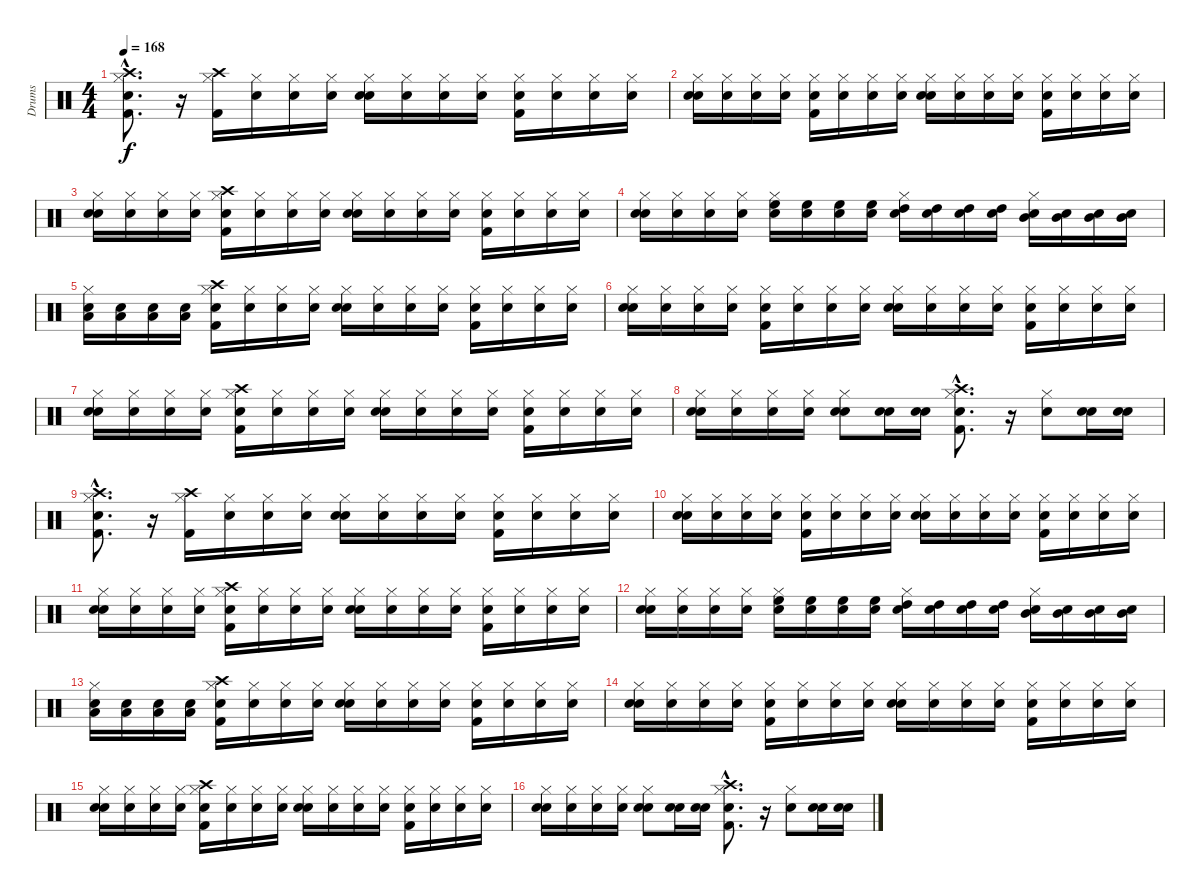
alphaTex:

\track ("Drums" "Drums") {instrument percussion}
\staff {score}
\articulation defaults
\ts (4 4)
\tempo 168
\clef neutral
\ks c
("Snare (hit)"{hac} "Kick (hit) 2"{hac} "Hi-Hat (closed)"{hac} "Crash high (hit)"{hac}).8{d dy f} r.16 ("Kick (hit) 2" "Hi-Hat (closed)" "Crash high (hit)").16 ("Snare (hit)" "Hi-Hat (closed)").16 ("Snare (hit)" "Hi-Hat (closed)").16 ("Snare (hit)" "Hi-Hat (closed)").16 ("Snare (hit)" "Snare (hit) 2" "Hi-Hat (closed)").16 ("Snare (hit)" "Hi-Hat (closed)").16 ("Snare (hit)" "Hi-Hat (closed)").16 ("Snare (hit)" "Hi-Hat (closed)").16 ("Snare (hit)" "Kick (hit) 2" "Hi-Hat (closed)").16 ("Snare (hit)" "Hi-Hat (closed)").16 ("Snare (hit)" "Hi-Hat (closed)").16 ("Snare (hit)" "Hi-Hat (closed)").16 |
("Snare (hit)" "Snare (hit) 2" "Hi-Hat (closed)").16 ("Snare (hit)" "Hi-Hat (closed)").16 ("Snare (hit)" "Hi-Hat (closed)").16 ("Snare (hit)" "Hi-Hat (closed)").16 ("Snare (hit)" "Kick (hit) 2" "Hi-Hat (closed)").16 ("Snare (hit)" "Hi-Hat (closed)").16 ("Snare (hit)" "Hi-Hat (closed)").16 ("Snare (hit)" "Hi-Hat (closed)").16 ("Snare (hit)" "Snare (hit) 2" "Hi-Hat (closed)").16 ("Snare (hit)" "Hi-Hat (closed)").16 ("Snare (hit)" "Hi-Hat (closed)").16 ("Snare (hit)" "Hi-Hat (closed)").16 ("Snare (hit)" "Kick (hit) 2" "Hi-Hat (closed)").16 ("Snare (hit)" "Hi-Hat (closed)").16 ("Snare (hit)" "Hi-Hat (closed)").16 ("Snare (hit)" "Hi-Hat (closed)").16 |
("Snare (hit)" "Snare (hit) 2" "Hi-Hat (closed)").16 ("Snare (hit)" "Hi-Hat (closed)").16 ("Snare (hit)" "Hi-Hat (closed)").16 ("Snare (hit)" "Hi-Hat (closed)").16 ("Snare (hit)" "Kick (hit) 2" "Hi-Hat (closed)" "Crash high (hit)").16 ("Snare (hit)" "Hi-Hat (closed)").16 ("Snare (hit)" "Hi-Hat (closed)").16 ("Snare (hit)" "Hi-Hat (closed)").16 ("Snare (hit)" "Snare (hit) 2" "Hi-Hat (closed)").16 ("Snare (hit)" "Hi-Hat (closed)").16 ("Snare (hit)" "Hi-Hat (closed)").16 ("Snare (hit)" "Hi-Hat (closed)").16 ("Snare (hit)" "Kick (hit) 2" "Hi-Hat (closed)").16 ("Snare (hit)" "Hi-Hat (closed)").16 ("Snare (hit)" "Hi-Hat (closed)").16 ("Snare (hit)" "Hi-Hat (closed)").16 |
("Snare (hit)" "Snare (hit) 2" "Hi-Hat (closed)").16 ("Snare (hit)" "Hi-Hat (closed)").16 ("Snare (hit)" "Hi-Hat (closed)").16 ("Snare (hit)" "Hi-Hat (closed)").16 ("Snare (hit)" "Hi-Hat (closed)" "High Floor Tom (hit)").16 ("Snare (hit)" "High Floor Tom (hit)").16 ("Snare (hit)" "High Floor Tom (hit)").16 ("Snare (hit)" "High Floor Tom (hit)").16 ("Snare (hit)" "Hi-Hat (closed)" "High Tom (hit)").16 ("Snare (hit)" "High Tom (hit)").16 ("Snare (hit)" "High Tom (hit)").16 ("Snare (hit)" "High Tom (hit)").16 ("Snare (hit)" "Hi-Hat (closed)" "Mid Tom (hit)").16 ("Snare (hit)" "Mid Tom (hit)").16 ("Snare (hit)" "Mid Tom (hit)").16 ("Snare (hit)" "Mid Tom (hit)").16 |
("Snare (hit)" "Hi-Hat (closed)" "Low Tom (hit)").16 ("Snare (hit)" "Low Tom (hit)").16 ("Snare (hit)" "Low Tom (hit)").16 ("Snare (hit)" "Low Tom (hit)").16 ("Snare (hit)" "Kick (hit) 2" "Hi-Hat (closed)" "Crash high (hit)").16 ("Snare (hit)" "Hi-Hat (closed)").16 ("Snare (hit)" "Hi-Hat (closed)").16 ("Snare (hit)" "Hi-Hat (closed)").16 ("Snare (hit)" "Snare (hit) 2" "Hi-Hat (closed)").16 ("Snare (hit)" "Hi-Hat (closed)").16 ("Snare (hit)" "Hi-Hat (closed)").16 ("Snare (hit)" "Hi-Hat (closed)").16 ("Snare (hit)" "Kick (hit) 2" "Hi-Hat (closed)").16 ("Snare (hit)" "Hi-Hat (closed)").16 ("Snare (hit)" "Hi-Hat (closed)").16 ("Snare (hit)" "Hi-Hat (closed)").16 |
("Snare (hit)" "Snare (hit) 2" "Hi-Hat (closed)").16 ("Snare (hit)" "Hi-Hat (closed)").16 ("Snare (hit)" "Hi-Hat (closed)").16 ("Snare (hit)" "Hi-Hat (closed)").16 ("Snare (hit)" "Kick (hit) 2" "Hi-Hat (closed)").16 ("Snare (hit)" "Hi-Hat (closed)").16 ("Snare (hit)" "Hi-Hat (closed)").16 ("Snare (hit)" "Hi-Hat (closed)").16 ("Snare (hit)" "Snare (hit) 2" "Hi-Hat (closed)").16 ("Snare (hit)" "Hi-Hat (closed)").16 ("Snare (hit)" "Hi-Hat (closed)").16 ("Snare (hit)" "Hi-Hat (closed)").16 ("Snare (hit)" "Kick (hit) 2" "Hi-Hat (closed)").16 ("Snare (hit)" "Hi-Hat (closed)").16 ("Snare (hit)" "Hi-Hat (closed)").16 ("Snare (hit)" "Hi-Hat (closed)").16 |
("Snare (hit)" "Snare (hit) 2" "Hi-Hat (closed)").16 ("Snare (hit)" "Hi-Hat (closed)").16 ("Snare (hit)" "Hi-Hat (closed)").16 ("Snare (hit)" "Hi-Hat (closed)").16 ("Snare (hit)" "Kick (hit) 2" "Hi-Hat (closed)" "Crash high (hit)").16 ("Snare (hit)" "Hi-Hat (closed)").16 ("Snare (hit)" "Hi-Hat (closed)").16 ("Snare (hit)" "Hi-Hat (closed)").16 ("Snare (hit)" "Snare (hit) 2" "Hi-Hat (closed)").16 ("Snare (hit)" "Hi-Hat (closed)").16 ("Snare (hit)" "Hi-Hat (closed)").16 ("Snare (hit)" "Hi-Hat (closed)").16 ("Snare (hit)" "Kick (hit) 2" "Hi-Hat (closed)").16 ("Snare (hit)" "Hi-Hat (closed)").16 ("Snare (hit)" "Hi-Hat (closed)").16 ("Snare (hit)" "Hi-Hat (closed)").16 |
("Snare (hit)" "Snare (hit) 2" "Hi-Hat (closed)").16 ("Snare (hit)" "Hi-Hat (closed)").16 ("Snare (hit)" "Hi-Hat (closed)").16 ("Snare (hit)" "Hi-Hat (closed)").16 ("Snare (hit)" "Snare (hit) 2" "Hi-Hat (closed)").8 ("Snare (hit)" "Snare (hit) 2").16 ("Snare (hit)" "Snare (hit) 2").16 ("Snare (hit)"{hac} "Kick (hit) 2"{hac} "Hi-Hat (closed)"{hac} "Crash high (hit)"{hac}).8{d} r.16 ("Snare (hit) 2" "Hi-Hat (closed)").8 ("Snare (hit)" "Snare (hit) 2").16 ("Snare (hit)" "Snare (hit) 2").16 |
("Snare (hit)"{hac} "Kick (hit) 2"{hac} "Hi-Hat (closed)"{hac} "Crash high (hit)"{hac}).8{d} r.16 ("Kick (hit) 2" "Hi-Hat (closed)" "Crash high (hit)").16 ("Snare (hit)" "Hi-Hat (closed)").16 ("Snare (hit)" "Hi-Hat (closed)").16 ("Snare (hit)" "Hi-Hat (closed)").16 ("Snare (hit)" "Snare (hit) 2" "Hi-Hat (closed)").16 ("Snare (hit)" "Hi-Hat (closed)").16 ("Snare (hit)" "Hi-Hat (closed)").16 ("Snare (hit)" "Hi-Hat (closed)").16 ("Snare (hit)" "Kick (hit) 2" "Hi-Hat (closed)").16 ("Snare (hit)" "Hi-Hat (closed)").16 ("Snare (hit)" "Hi-Hat (closed)").16 ("Snare (hit)" "Hi-Hat (closed)").16 |
("Snare (hit)" "Snare (hit) 2" "Hi-Hat (closed)").16 ("Snare (hit)" "Hi-Hat (closed)").16 ("Snare (hit)" "Hi-Hat (closed)").16 ("Snare (hit)" "Hi-Hat (closed)").16 ("Snare (hit)" "Kick (hit) 2" "Hi-Hat (closed)").16 ("Snare (hit)" "Hi-Hat (closed)").16 ("Snare (hit)" "Hi-Hat (closed)").16 ("Snare (hit)" "Hi-Hat (closed)").16 ("Snare (hit)" "Snare (hit) 2" "Hi-Hat (closed)").16 ("Snare (hit)" "Hi-Hat (closed)").16 ("Snare (hit)" "Hi-Hat (closed)").16 ("Snare (hit)" "Hi-Hat (closed)").16 ("Snare (hit)" "Kick (hit) 2" "Hi-Hat (closed)").16 ("Snare (hit)" "Hi-Hat (closed)").16 ("Snare (hit)" "Hi-Hat (closed)").16 ("Snare (hit)" "Hi-Hat (closed)").16 |
("Snare (hit)" "Snare (hit) 2" "Hi-Hat (closed)").16 ("Snare (hit)" "Hi-Hat (closed)").16 ("Snare (hit)" "Hi-Hat (closed)").16 ("Snare (hit)" "Hi-Hat (closed)").16 ("Snare (hit)" "Kick (hit) 2" "Hi-Hat (closed)" "Crash high (hit)").16 ("Snare (hit)" "Hi-Hat (closed)").16 ("Snare (hit)" "Hi-Hat (closed)").16 ("Snare (hit)" "Hi-Hat (closed)").16 ("Snare (hit)" "Snare (hit) 2" "Hi-Hat (closed)").16 ("Snare (hit)" "Hi-Hat (closed)").16 ("Snare (hit)" "Hi-Hat (closed)").16 ("Snare (hit)" "Hi-Hat (closed)").16 ("Snare (hit)" "Kick (hit) 2" "Hi-Hat (closed)").16 ("Snare (hit)" "Hi-Hat (closed)").16 ("Snare (hit)" "Hi-Hat (closed)").16 ("Snare (hit)" "Hi-Hat (closed)").16 |
("Snare (hit)" "Snare (hit) 2" "Hi-Hat (closed)").16 ("Snare (hit)" "Hi-Hat (closed)").16 ("Snare (hit)" "Hi-Hat (closed)").16 ("Snare (hit)" "Hi-Hat (closed)").16 ("Snare (hit)" "Hi-Hat (closed)" "High Floor Tom (hit)").16 ("Snare (hit)" "High Floor Tom (hit)").16 ("Snare (hit)" "High Floor Tom (hit)").16 ("Snare (hit)" "High Floor Tom (hit)").16 ("Snare (hit)" "Hi-Hat (closed)" "High Tom (hit)").16 ("Snare (hit)" "High Tom (hit)").16 ("Snare (hit)" "High Tom (hit)").16 ("Snare (hit)" "High Tom (hit)").16 ("Snare (hit)" "Hi-Hat (closed)" "Mid Tom (hit)").16 ("Snare (hit)" "Mid Tom (hit)").16 ("Snare (hit)" "Mid Tom (hit)").16 ("Snare (hit)" "Mid Tom (hit)").16 |
("Snare (hit)" "Hi-Hat (closed)" "Low Tom (hit)").16 ("Snare (hit)" "Low Tom (hit)").16 ("Snare (hit)" "Low Tom (hit)").16 ("Snare (hit)" "Low Tom (hit)").16 ("Snare (hit)" "Kick (hit) 2" "Hi-Hat (closed)" "Crash high (hit)").16 ("Snare (hit)" "Hi-Hat (closed)").16 ("Snare (hit)" "Hi-Hat (closed)").16 ("Snare (hit)" "Hi-Hat (closed)").16 ("Snare (hit)" "Snare (hit) 2" "Hi-Hat (closed)").16 ("Snare (hit)" "Hi-Hat (closed)").16 ("Snare (hit)" "Hi-Hat (closed)").16 ("Snare (hit)" "Hi-Hat (closed)").16 ("Snare (hit)" "Kick (hit) 2" "Hi-Hat (closed)").16 ("Snare (hit)" "Hi-Hat (closed)").16 ("Snare (hit)" "Hi-Hat (closed)").16 ("Snare (hit)" "Hi-Hat (closed)").16 |
("Snare (hit)" "Snare (hit) 2" "Hi-Hat (closed)").16 ("Snare (hit)" "Hi-Hat (closed)").16 ("Snare (hit)" "Hi-Hat (closed)").16 ("Snare (hit)" "Hi-Hat (closed)").16 ("Snare (hit)" "Kick (hit) 2" "Hi-Hat (closed)").16 ("Snare (hit)" "Hi-Hat (closed)").16 ("Snare (hit)" "Hi-Hat (closed)").16 ("Snare (hit)" "Hi-Hat (closed)").16 ("Snare (hit)" "Snare (hit) 2" "Hi-Hat (closed)").16 ("Snare (hit)" "Hi-Hat (closed)").16 ("Snare (hit)" "Hi-Hat (closed)").16 ("Snare (hit)" "Hi-Hat (closed)").16 ("Snare (hit)" "Kick (hit) 2" "Hi-Hat (closed)").16 ("Snare (hit)" "Hi-Hat (closed)").16 ("Snare (hit)" "Hi-Hat (closed)").16 ("Snare (hit)" "Hi-Hat (closed)").16 |
("Snare (hit)" "Snare (hit) 2" "Hi-Hat (closed)").16 ("Snare (hit)" "Hi-Hat (closed)").16 ("Snare (hit)" "Hi-Hat (closed)").16 ("Snare (hit)" "Hi-Hat (closed)").16 ("Snare (hit)" "Kick (hit) 2" "Hi-Hat (closed)" "Crash high (hit)").16 ("Snare (hit)" "Hi-Hat (closed)").16 ("Snare (hit)" "Hi-Hat (closed)").16 ("Snare (hit)" "Hi-Hat (closed)").16 ("Snare (hit)" "Snare (hit) 2" "Hi-Hat (closed)").16 ("Snare (hit)" "Hi-Hat (closed)").16 ("Snare (hit)" "Hi-Hat (closed)").16 ("Snare (hit)" "Hi-Hat (closed)").16 ("Snare (hit)" "Kick (hit) 2" "Hi-Hat (closed)").16 ("Snare (hit)" "Hi-Hat (closed)").16 ("Snare (hit)" "Hi-Hat (closed)").16 ("Snare (hit)" "Hi-Hat (closed)").16 |
("Snare (hit)" "Snare (hit) 2" "Hi-Hat (closed)").16 ("Snare (hit)" "Hi-Hat (closed)").16 ("Snare (hit)" "Hi-Hat (closed)").16 ("Snare (hit)" "Hi-Hat (closed)").16 ("Snare (hit)" "Snare (hit) 2" "Hi-Hat (closed)").8 ("Snare (hit)" "Snare (hit) 2").16 ("Snare (hit)" "Snare (hit) 2").16 ("Snare (hit)"{hac} "Kick (hit) 2"{hac} "Hi-Hat (closed)"{hac} "Crash high (hit)"{hac}).8{d} r.16 ("Snare (hit) 2" "Hi-Hat (closed)").8 ("Snare (hit)" "Snare (hit) 2").16 ("Snare (hit)" "Snare (hit) 2").16
